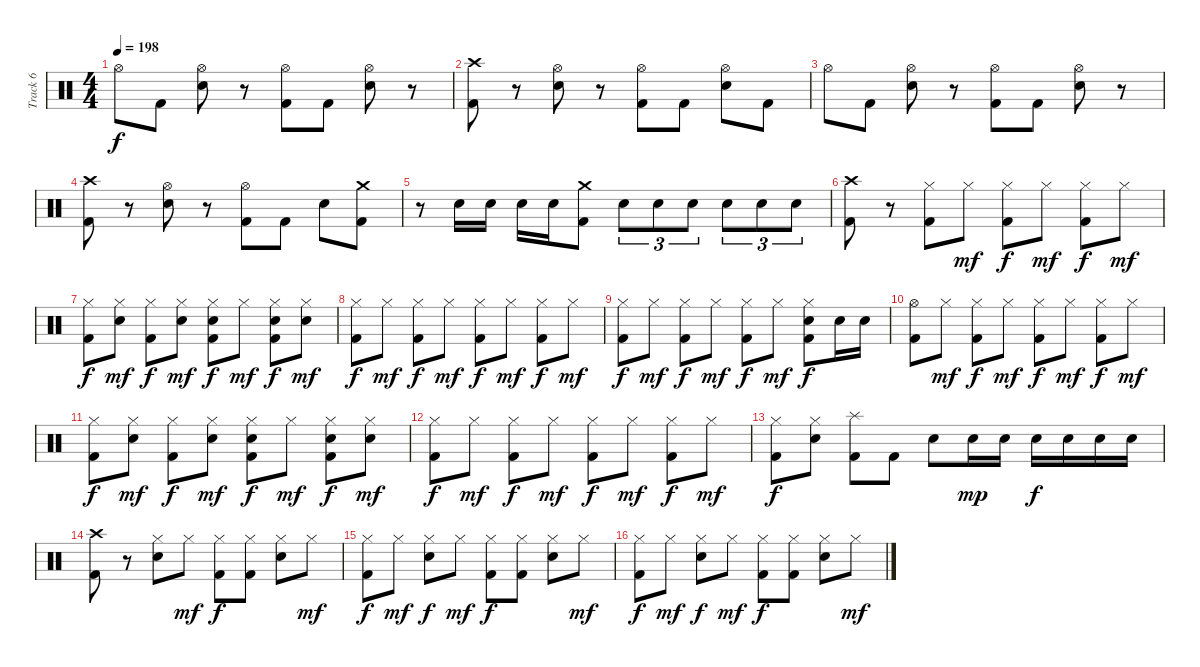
\track ("Track 6" "Track 6") {instrument percussion}
\staff {score}
\articulation defaults
\ts (4 4)
\tempo 198
\clef neutral
\ks c "Hi-Hat (open)".8{dy f} "Kick (hit) 2".8
("Hi-Hat (open)" "Electric Snare (hit)").8 r.8 ("Hi-Hat (open)" "Kick (hit) 2").8 "Kick (hit) 2".8 ("Hi-Hat (open)" "Electric Snare (hit)").8 r.8 |
("Crash high (hit)" "Kick (hit) 2").8 r.8 ("Hi-Hat (open)" "Electric Snare (hit)").8 r.8 ("Hi-Hat (open)" "Kick (hit) 2").8 "Kick (hit) 2".8 ("Hi-Hat (open)" "Electric Snare (hit)").8 "Kick (hit) 2".8 |
"Hi-Hat (open)".8 "Kick (hit) 2".8 ("Hi-Hat (open)" "Electric Snare (hit)").8 r.8 ("Hi-Hat (open)" "Kick (hit) 2").8 "Kick (hit) 2".8 ("Hi-Hat (open)" "Electric Snare (hit)").8 r.8 |
("Crash high (hit)" "Kick (hit) 2").8 r.8 ("Hi-Hat (open)" "Electric Snare (hit)").8 r.8 ("Hi-Hat (open)" "Kick (hit) 2").8 "Kick (hit) 2".8 "Electric Snare (hit)".8 ("Crash medium (hit)" "Kick (hit) 2").8 |
r.8 "Electric Snare (hit)".16 "Electric Snare (hit)".16 "Electric Snare (hit)".16 "Electric Snare (hit)".16 ("Crash medium (hit)" "Kick (hit) 2").8 "Electric Snare (hit)".8{tu (3 2)} "Electric Snare (hit)".8{tu (3 2)} "Electric Snare (hit)".8{tu (3 2)} "Electric Snare (hit)".8{tu (3 2)} "Electric Snare (hit)".8{tu (3 2)} "Electric Snare (hit)".8{tu (3 2)} |
("Crash high (hit)" "Kick (hit) 2").8 r.8 ("Hi-Hat (closed)" "Kick (hit) 2").8 "Hi-Hat (closed)".8{dy mf} ("Hi-Hat (closed)" "Kick (hit) 2").8{dy f} "Hi-Hat (closed)".8{dy mf} ("Hi-Hat (closed)" "Kick (hit) 2").8{dy f} "Hi-Hat (closed)".8{dy mf} |
("Hi-Hat (closed)" "Kick (hit) 2").8{dy f} ("Hi-Hat (closed)" "Electric Snare (hit)").8{dy mf} ("Hi-Hat (closed)" "Kick (hit) 2").8{dy f} ("Hi-Hat (closed)" "Electric Snare (hit)").8{dy mf} ("Hi-Hat (closed)" "Electric Snare (hit)" "Kick (hit) 2").8{dy f} "Hi-Hat (closed)".8{dy mf} ("Hi-Hat (closed)" "Electric Snare (hit)" "Kick (hit) 2").8{dy f} ("Hi-Hat (closed)" "Electric Snare (hit)").8{dy mf} |
("Hi-Hat (closed)" "Kick (hit) 2").8{dy f} "Hi-Hat (closed)".8{dy mf} ("Hi-Hat (closed)" "Kick (hit) 2").8{dy f} "Hi-Hat (closed)".8{dy mf} ("Hi-Hat (closed)" "Kick (hit) 2").8{dy f} "Hi-Hat (closed)".8{dy mf} ("Hi-Hat (closed)" "Kick (hit) 2").8{dy f} "Hi-Hat (closed)".8{dy mf} |
("Hi-Hat (closed)" "Kick (hit) 2").8{dy f} "Hi-Hat (closed)".8{dy mf} ("Hi-Hat (closed)" "Kick (hit) 2").8{dy f} "Hi-Hat (closed)".8{dy mf} ("Hi-Hat (closed)" "Kick (hit) 2").8{dy f} "Hi-Hat (closed)".8{dy mf} ("Hi-Hat (closed)" "Electric Snare (hit)" "Kick (hit) 2").8{dy f} "Electric Snare (hit)".16 "Electric Snare (hit)".16 |
("Hi-Hat (open)" "Kick (hit) 2").8 "Hi-Hat (closed)".8{dy mf} ("Hi-Hat (closed)" "Kick (hit) 2").8{dy f} "Hi-Hat (closed)".8{dy mf} ("Hi-Hat (closed)" "Kick (hit) 2").8{dy f} "Hi-Hat (closed)".8{dy mf} ("Hi-Hat (closed)" "Kick (hit) 2").8{dy f} "Hi-Hat (closed)".8{dy mf} |
("Hi-Hat (closed)" "Kick (hit) 2").8{dy f} ("Hi-Hat (closed)" "Electric Snare (hit)").8{dy mf} ("Hi-Hat (closed)" "Kick (hit) 2").8{dy f} ("Hi-Hat (closed)" "Electric Snare (hit)").8{dy mf} ("Hi-Hat (closed)" "Electric Snare (hit)" "Kick (hit) 2").8{dy f} "Hi-Hat (closed)".8{dy mf} ("Hi-Hat (closed)" "Electric Snare (hit)" "Kick (hit) 2").8{dy f} ("Hi-Hat (closed)" "Electric Snare (hit)").8{dy mf} |
("Hi-Hat (closed)" "Kick (hit) 2").8{dy f} "Hi-Hat (closed)".8{dy mf} ("Hi-Hat (closed)" "Kick (hit) 2").8{dy f} "Hi-Hat (closed)".8{dy mf} ("Hi-Hat (closed)" "Kick (hit) 2").8{dy f} "Hi-Hat (closed)".8{dy mf} ("Hi-Hat (closed)" "Kick (hit) 2").8{dy f} "Hi-Hat (closed)".8{dy mf} |
("Hi-Hat (closed)" "Kick (hit) 2").8{dy f} ("Hi-Hat (closed)" "Electric Snare (hit)").8 ("Splash (hit)" "Kick (hit) 2").8 "Kick (hit) 2".8 "Electric Snare (hit)".8 "Electric Snare (hit)".16{dy mp} "Electric Snare (hit)".16 "Electric Snare (hit)".16{dy f} "Electric Snare (hit)".16 "Electric Snare (hit)".16 "Electric Snare (hit)".16 |
("Crash high (hit)" "Kick (hit) 2").8 r.8 ("Hi-Hat (closed)" "Electric Snare (hit)").8 "Hi-Hat (closed)".8{dy mf} ("Hi-Hat (closed)" "Kick (hit) 2").8{dy f} ("Hi-Hat (closed)" "Kick (hit) 2").8 ("Hi-Hat (closed)" "Electric Snare (hit)").8 "Hi-Hat (closed)".8{dy mf} |
("Hi-Hat (closed)" "Kick (hit) 2").8{dy f} "Hi-Hat (closed)".8{dy mf} ("Hi-Hat (closed)" "Electric Snare (hit)").8{dy f} "Hi-Hat (closed)".8{dy mf} ("Hi-Hat (closed)" "Kick (hit) 2").8{dy f} ("Hi-Hat (closed)" "Kick (hit) 2").8 ("Hi-Hat (closed)" "Electric Snare (hit)").8 "Hi-Hat (closed)".8{dy mf} |
("Hi-Hat (closed)" "Kick (hit) 2").8{dy f} "Hi-Hat (closed)".8{dy mf} ("Hi-Hat (closed)" "Electric Snare (hit)").8{dy f} "Hi-Hat (closed)".8{dy mf} ("Hi-Hat (closed)" "Kick (hit) 2").8{dy f} ("Hi-Hat (closed)" "Kick (hit) 2").8 ("Hi-Hat (closed)" "Electric Snare (hit)").8 "Hi-Hat (closed)".8{dy mf}
